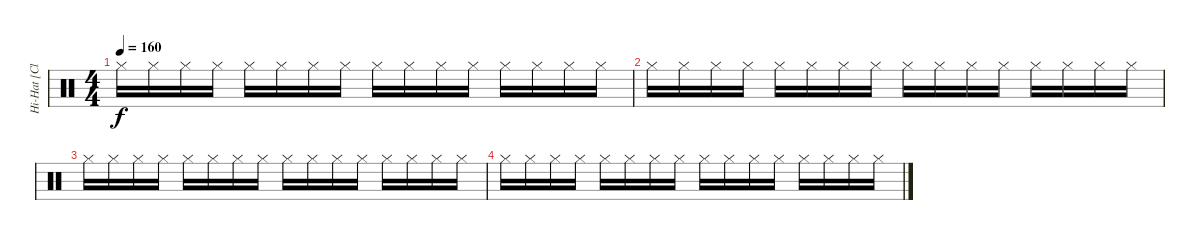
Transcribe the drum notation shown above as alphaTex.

\track ("Hi-Hat [Closed]" "Hi-Hat [Cl") {instrument percussion}
\staff {score}
\articulation defaults
\ts (4 4)
\tempo 160
\clef neutral
\ks c "Hi-Hat (closed)".16{dy f} "Hi-Hat (closed)".16 "Hi-Hat (closed)".16 "Hi-Hat (closed)".16 "Hi-Hat (closed)".16 "Hi-Hat (closed)".16 "Hi-Hat (closed)".16 "Hi-Hat (closed)".16 "Hi-Hat (closed)".16 "Hi-Hat (closed)".16 "Hi-Hat (closed)".16 "Hi-Hat (closed)".16 "Hi-Hat (closed)".16 "Hi-Hat (closed)".16 "Hi-Hat (closed)".16 "Hi-Hat (closed)".16
|
"Hi-Hat (closed)".16 "Hi-Hat (closed)".16 "Hi-Hat (closed)".16 "Hi-Hat (closed)".16 "Hi-Hat (closed)".16 "Hi-Hat (closed)".16 "Hi-Hat (closed)".16 "Hi-Hat (closed)".16 "Hi-Hat (closed)".16 "Hi-Hat (closed)".16 "Hi-Hat (closed)".16 "Hi-Hat (closed)".16 "Hi-Hat (closed)".16 "Hi-Hat (closed)".16 "Hi-Hat (closed)".16 "Hi-Hat (closed)".16 |
"Hi-Hat (closed)".16 "Hi-Hat (closed)".16 "Hi-Hat (closed)".16 "Hi-Hat (closed)".16 "Hi-Hat (closed)".16 "Hi-Hat (closed)".16 "Hi-Hat (closed)".16 "Hi-Hat (closed)".16 "Hi-Hat (closed)".16 "Hi-Hat (closed)".16 "Hi-Hat (closed)".16 "Hi-Hat (closed)".16 "Hi-Hat (closed)".16 "Hi-Hat (closed)".16 "Hi-Hat (closed)".16 "Hi-Hat (closed)".16 |
"Hi-Hat (closed)".16 "Hi-Hat (closed)".16 "Hi-Hat (closed)".16 "Hi-Hat (closed)".16 "Hi-Hat (closed)".16 "Hi-Hat (closed)".16 "Hi-Hat (closed)".16 "Hi-Hat (closed)".16 "Hi-Hat (closed)".16 "Hi-Hat (closed)".16 "Hi-Hat (closed)".16 "Hi-Hat (closed)".16 "Hi-Hat (closed)".16 "Hi-Hat (closed)".16 "Hi-Hat (closed)".16 "Hi-Hat (closed)".16
